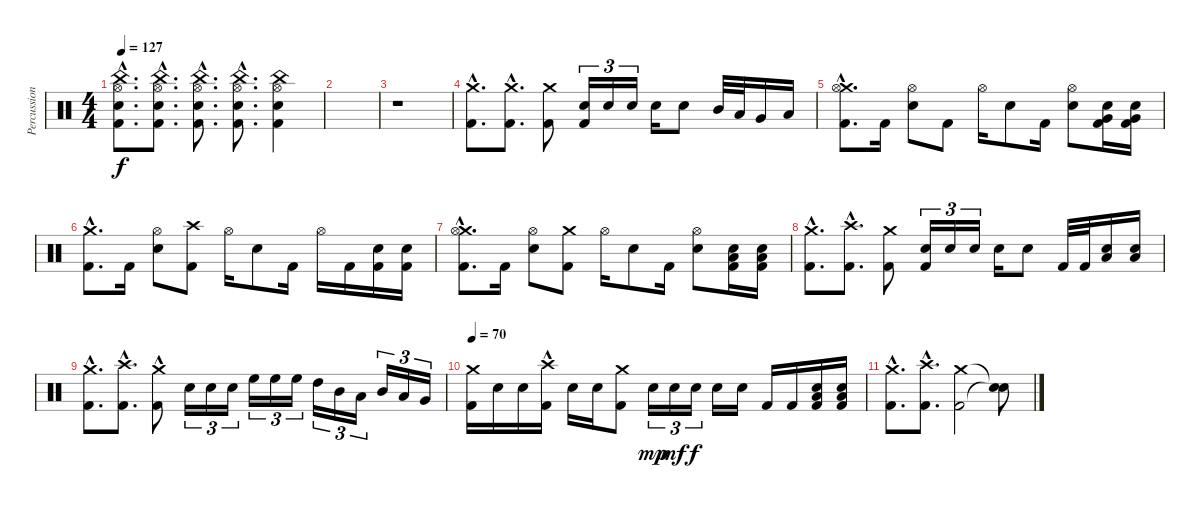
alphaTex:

\track ("Percussion" "Percussion") {instrument percussion}
\staff {score}
\articulation defaults
\ts (4 4)
\tempo 127
\clef neutral
\ks c
("China (hit)"{hac} "Hi-Hat (open)"{hac} "Electric Snare (hit)"{hac} "Kick (hit) 2"{hac}).8{d dy f} ("China (hit)"{hac} "Hi-Hat (open)"{hac} "Electric Snare (hit)"{hac} "Kick (hit) 2"{hac}).8{d} ("China (hit)"{hac} "Hi-Hat (open)"{hac} "Electric Snare (hit)"{hac} "Kick (hit) 2"{hac}).8{d} ("China (hit)"{hac} "Hi-Hat (open)"{hac} "Electric Snare (hit)"{hac} "Kick (hit) 2"{hac}).8{d} ("China (hit)" "Hi-Hat (open)" "Electric Snare (hit)" "Kick (hit) 2").4 |
|
r.1 |
("Crash medium (hit)"{hac} "Kick (hit) 2"{hac}).8{d} ("Crash medium (hit)"{hac} "Kick (hit) 2"{hac}).8{d} ("Crash medium (hit)" "Kick (hit) 2").8 ("Electric Snare (hit)" "Kick (hit) 2").16{tu (3 2)} "Electric Snare (hit)".16{tu (3 2)} "Electric Snare (hit)".16{tu (3 2)} "Electric Snare (hit)".16 "Electric Snare (hit)".8 "Mid Tom (hit)".32 "Low Tom (hit)".32 "Very Low Tom (hit)".16 "Low Floor Tom (hit)".16 |
("Crash medium (hit)"{hac} "Hi-Hat (open)"{hac} "Kick (hit) 2"{hac}).8{d} "Kick (hit) 2".16 ("Hi-Hat (open)" "Electric Snare (hit)").8 "Kick (hit) 2".8 "Hi-Hat (open)".16 "Electric Snare (hit)".8 "Kick (hit) 2".16 ("Hi-Hat (open)" "Electric Snare (hit)").8 ("Very Low Tom (hit)" "Electric Snare (hit)" "Kick (hit) 2").16 ("Very Low Tom (hit)" "Electric Snare (hit)" "Kick (hit) 2").16 |
("Crash medium (hit)" "Kick (hit) 2"{hac}).8{d} "Kick (hit) 2".16 ("Hi-Hat (open)" "Electric Snare (hit)").8 ("Crash high (hit)" "Kick (hit) 2").8 "Hi-Hat (open)".16 "Electric Snare (hit)".8 "Kick (hit) 2".16 "Hi-Hat (open)".16 "Kick (hit) 2".16 ("Electric Snare (hit)" "Kick (hit) 2").16 ("Electric Snare (hit)" "Kick (hit) 2").16 |
("Crash medium (hit)"{hac} "Hi-Hat (open)"{hac} "Kick (hit) 2"{hac}).8{d} "Kick (hit) 2".16 ("Hi-Hat (open)" "Electric Snare (hit)").8 ("Crash medium (hit)" "Kick (hit) 2").8 "Hi-Hat (open)".16 "Electric Snare (hit)".8 "Kick (hit) 2".16 ("Hi-Hat (open)" "Electric Snare (hit)").8 ("Low Floor Tom (hit)" "Electric Snare (hit)" "Kick (hit) 2").16 ("Low Floor Tom (hit)" "Electric Snare (hit)" "Kick (hit) 2").16 |
("Crash medium (hit)"{hac} "Kick (hit) 2"{hac}).8{d} ("Crash high (hit)"{hac} "Kick (hit) 2"{hac}).8{d} ("Crash medium (hit)" "Kick (hit) 2").8 ("Electric Snare (hit)" "Kick (hit) 2").16{tu (3 2)} "Electric Snare (hit)".16{tu (3 2)} "Electric Snare (hit)".16{tu (3 2)} "Electric Snare (hit)".16 "Electric Snare (hit)".8 "Kick (hit) 2".32 "Kick (hit) 2".32 ("Low Floor Tom (hit)" "Electric Snare (hit)").16 ("Low Floor Tom (hit)" "Electric Snare (hit)").16 |
("Crash medium (hit)"{hac} "Kick (hit) 2"{hac}).8{d} ("Crash high (hit)"{hac} "Kick (hit) 2"{hac}).8{d} ("Crash medium (hit)"{hac} "Kick (hit) 2").8 "Electric Snare (hit)".16{tu (3 2)} "Electric Snare (hit)".16{tu (3 2)} "Electric Snare (hit)".16{tu (3 2)} "High Floor Tom (hit)".16{tu (3 2)} "High Floor Tom (hit)".16{tu (3 2)} "High Floor Tom (hit)".16{tu (3 2)} "High Tom (hit)".16{tu (3 2)} "Mid Tom (hit)".16{tu (3 2)} "Low Tom (hit)".16{tu (3 2)} "Mid Tom (hit)".16{tu (3 2)} "Low Tom (hit)".16{tu (3 2)} "Very Low Tom (hit)".16{tu (3 2)} |
\tempo 70
("Crash medium (hit)" "Kick (hit) 2").16 "Electric Snare (hit)".16 "Electric Snare (hit)".16 ("Crash high (hit)"{hac} "Kick (hit) 2").16 "Electric Snare (hit)".16 "Electric Snare (hit)".16 ("Crash medium (hit)" "Kick (hit) 2").8 "Electric Snare (hit)".16{tu (3 2) dy mp} "Electric Snare (hit)".16{tu (3 2) dy mf} "Electric Snare (hit)".16{tu (3 2) dy f} "Electric Snare (hit)".16 "Electric Snare (hit)".16 "Kick (hit) 2".16 "Kick (hit) 2".16 ("Low Floor Tom (hit)" "Electric Snare (hit)" "Kick (hit) 2").16 ("Low Floor Tom (hit)" "Electric Snare (hit)" "Kick (hit) 2").16 |
("Crash medium (hit)"{hac} "Kick (hit) 2"{hac}).8{d} ("Crash high (hit)"{hac} "Kick (hit) 2"{hac}).8{d} ("Crash medium (hit)" "Kick (hit) 2").2 ("Snare (hit)"{t} "Snare (hit)"{t}).8
